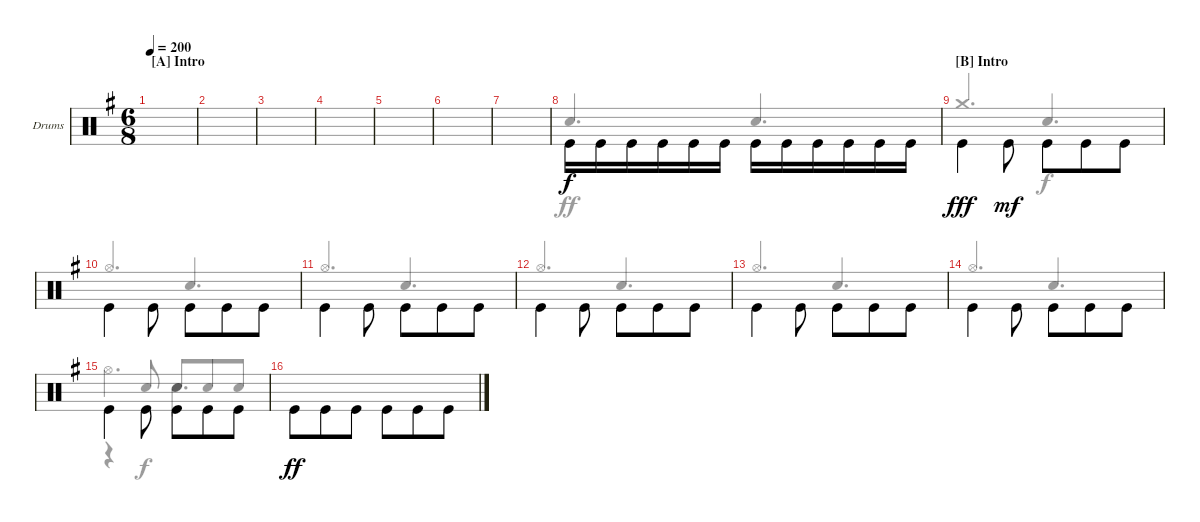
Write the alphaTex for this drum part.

\bracketExtendMode groupsimilarinstruments
\firstSystemTrackNameOrientation horizontal
\otherSystemsTrackNameOrientation horizontal
\track ("Drumkit" "Drums") {instrument percussion}
\staff {score}
\articulation defaults
\voice
\ts (6 8)
\section ("A" "Intro")
\tempo 200
\clef neutral
\ks eminor
|
|
|
|
|
|
|
"Kick (hit)".16{beam invert} "Kick (hit)".16 "Kick (hit)".16 "Kick (hit)".16 "Kick (hit)".16 "Kick (hit)".16 "Kick (hit)".16{beam invert} "Kick (hit)".16 "Kick (hit)".16 "Kick (hit)".16 "Kick (hit)".16 "Kick (hit)".16 |
\section ("B" "Intro")
"Kick (hit)".4{dy fff beam invert} "Kick (hit)".8{dy mf beam invert} "Kick (hit)".8{beam invert} "Kick (hit)".8 "Kick (hit)".8 |
"Kick (hit)".4{beam invert} "Kick (hit)".8{beam invert} "Kick (hit)".8 "Kick (hit)".8{beam invert} "Kick (hit)".8 |
"Kick (hit)".4{beam invert} "Kick (hit)".8{beam invert} "Kick (hit)".8{beam invert} "Kick (hit)".8 "Kick (hit)".8 |
"Kick (hit)".4{beam invert} "Kick (hit)".8{beam invert} "Kick (hit)".8 "Kick (hit)".8 "Kick (hit)".8{beam invert} |
"Kick (hit)".4{beam invert} "Kick (hit)".8{beam invert} "Kick (hit)".8{beam invert} "Kick (hit)".8 "Kick (hit)".8 |
"Kick (hit)".4{beam invert} "Kick (hit)".8{beam invert} "Kick (hit)".8 "Kick (hit)".8{beam invert} "Kick (hit)".8 |
"Kick (hit)".4{beam invert} "Kick (hit)".8{beam invert} "Kick (hit)".8{beam invert} "Kick (hit)".8 "Kick (hit)".8 |
"Kick (hit)".8{dy ff} "Kick (hit)".8 "Kick (hit)".8{beam invert} "Kick (hit)".8{beam invert} "Kick (hit)".8{beam invert} "Kick (hit)".8{beam invert}
\voice
\clef neutral
\ottava regular
\simile none
\ks eminor
|
|
|
|
|
|
|
"Snare (hit) 2".4{d beam invert} "Snare (hit) 2".4{d beam invert} |
"Crash medium (hit)".4{d dy fff beam invert} "Snare (hit) 2".4{d dy f beam invert} |
"Hi-Hat (open)".4{d beam invert} "Snare (hit) 2".4{d beam invert} |
"Hi-Hat (open)".4{d beam invert} "Snare (hit) 2".4{d beam invert} |
"Hi-Hat (open)".4{d beam invert} "Snare (hit) 2".4{d beam invert} |
"Hi-Hat (open)".4{d beam invert} "Snare (hit) 2".4{d beam invert} |
"Hi-Hat (open)".4{d beam invert} "Snare (hit) 2".4{d beam invert} |
"Hi-Hat (open)".4{d} "Snare (hit) 2".4{d} |
\voice
\clef neutral
\ottava regular
\simile none
\ks eminor
|
|
|
|
|
|
|
|
|
|
|
|
|
|
r.4 "Snare (hit) 2".8{beam invert} "Snare (hit) 2".8{beam invert} "Snare (hit) 2".8 "Snare (hit) 2".8 |
